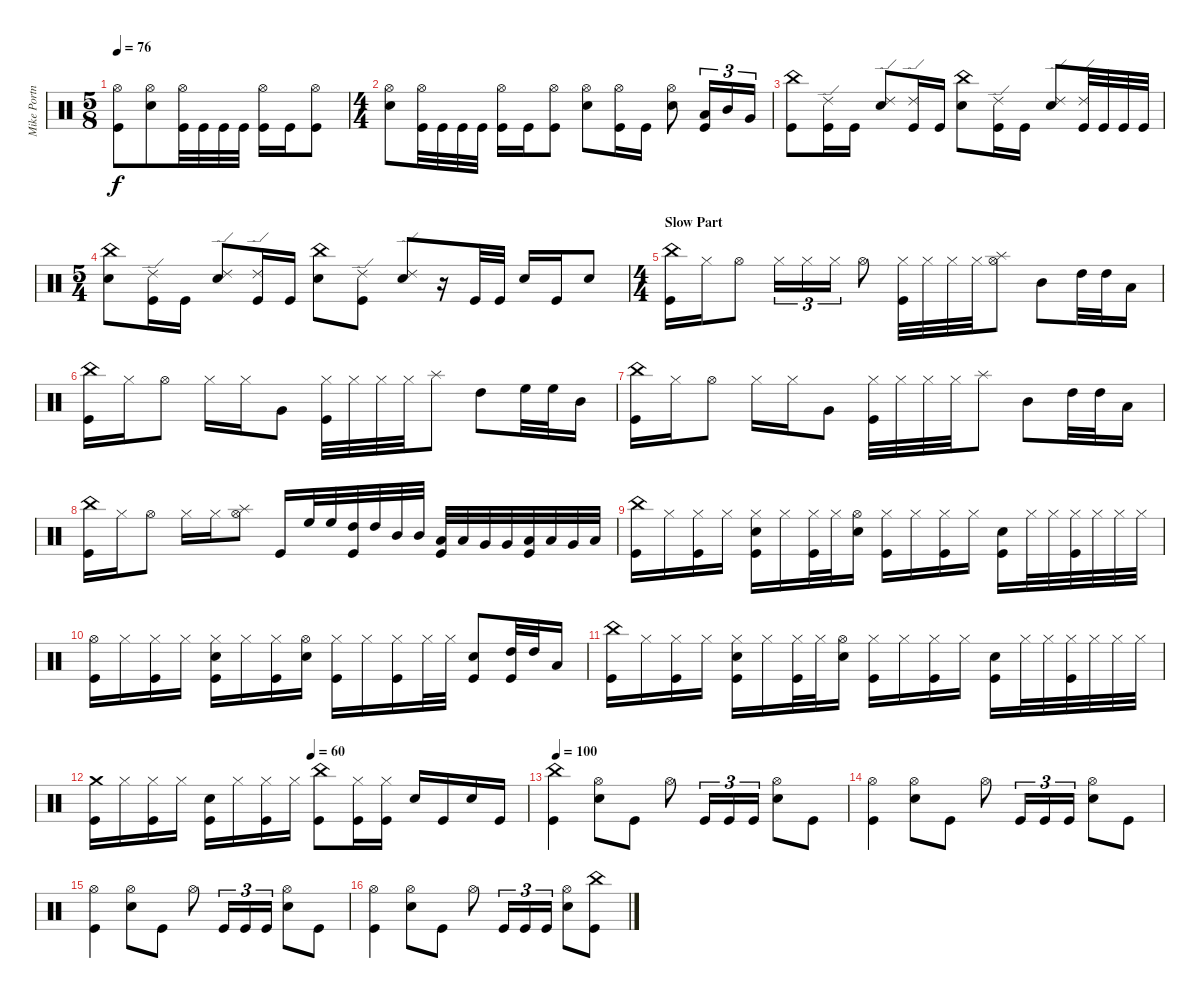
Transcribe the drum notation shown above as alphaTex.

\track ("Mike Portnoy (Drums)" "Mike Portn") {instrument percussion}
\staff {score}
\articulation defaults
\ts (5 8)
\tempo 76
\clef neutral
\ks c
("Kick (hit)" "Hi-Hat (open)").8{dy f} ("Snare (hit) 2" "Hi-Hat (open)").8 ("Kick (hit)" "Hi-Hat (open)").32 "Kick (hit)".32 "Kick (hit)".32 "Kick (hit)".32 ("Kick (hit)" "Hi-Hat (open)").16 "Kick (hit)".16 ("Kick (hit)" "Hi-Hat (open)").8 |
\ts (4 4)
("Snare (hit) 2" "Hi-Hat (open)").8 ("Kick (hit)" "Hi-Hat (open)").32 "Kick (hit)".32 "Kick (hit)".32 "Kick (hit)".32 ("Kick (hit)" "Hi-Hat (open)").16 "Kick (hit)".16 ("Kick (hit)" "Hi-Hat (open)").8 ("Snare (hit) 2" "Hi-Hat (open)").8 ("Kick (hit)" "Hi-Hat (open)").16 "Kick (hit)".16 ("Snare (hit) 2" "Hi-Hat (open)").8 ("Kick (hit)" "Low Tom (hit)").16{tu (3 2)} "Mid Tom (hit)".16{tu (3 2)} "Very Low Tom (hit)".16{tu (3 2)} |
("Kick (hit)" "China (hit)").8 ("Kick (hit)" "Ride (edge) 2").16 "Kick (hit)".16 ("Snare (hit) 2" "Ride (edge) 2").8 ("Kick (hit)" "Ride (edge) 2").16 "Kick (hit)".16 ("Snare (hit) 2" "China (hit)").8 ("Kick (hit)" "Ride (edge) 2").16 "Kick (hit)".16 ("Snare (hit) 2" "Ride (edge) 2").8 ("Kick (hit)" "Ride (edge) 2").32 "Kick (hit)".32 "Kick (hit)".32 "Kick (hit)".32 |
\ts (5 4)
("Snare (hit) 2" "China (hit)").8 ("Kick (hit)" "Ride (edge) 2").16 "Kick (hit)".16 ("Snare (hit) 2" "Ride (edge) 2").8 ("Kick (hit)" "Ride (edge) 2").16 "Kick (hit)".16 ("Snare (hit) 2" "China (hit)").8 ("Kick (hit)" "Ride (edge) 2").8 ("Snare (hit) 2" "Ride (edge) 2").8 r.16 "Kick (hit)".32 "Kick (hit)".32 "Snare (hit) 2".16 "Kick (hit)".16 "Snare (hit) 2".8 |
\ts (4 4)
\section ("" "Slow Part")
("Kick (hit)" "China (hit)").16 "Hi-Hat (closed)".16 "Hi-Hat (open)".8 "Hi-Hat (closed)".16{tu (3 2)} "Hi-Hat (closed)".16{tu (3 2)} "Hi-Hat (closed)".16{tu (3 2)} "Hi-Hat (open)".8 ("Kick (hit)" "Hi-Hat (closed)").32 "Hi-Hat (closed)".32 "Hi-Hat (closed)".32 "Hi-Hat (closed)".32 ("Hi-Hat (open)" "Splash (hit)").8 "Mid Tom (hit)".8 "High Tom (hit)".32 "High Tom (hit)".32 "Low Tom (hit)".16 |
("Kick (hit)" "China (hit)").16 "Hi-Hat (closed)".16 "Hi-Hat (open)".8 "Hi-Hat (closed)".16 "Hi-Hat (closed)".16 "Very Low Tom (hit)".8 ("Kick (hit)" "Hi-Hat (closed)").32 "Hi-Hat (closed)".32 "Hi-Hat (closed)".32 "Hi-Hat (closed)".32 "Splash (hit)".8 "High Tom (hit)".8 "High Floor Tom (hit)".32 "High Floor Tom (hit)".32 "Mid Tom (hit)".16 |
("Kick (hit)" "China (hit)").16 "Hi-Hat (closed)".16 "Hi-Hat (open)".8 "Hi-Hat (closed)".16 "Hi-Hat (closed)".16 "Very Low Tom (hit)".8 ("Kick (hit)" "Hi-Hat (closed)").32 "Hi-Hat (closed)".32 "Hi-Hat (closed)".32 "Hi-Hat (closed)".32 "Splash (hit)".8 "Mid Tom (hit)".8 "High Tom (hit)".32 "High Tom (hit)".32 "Low Tom (hit)".16 |
("Kick (hit)" "China (hit)").16 "Hi-Hat (closed)".16 "Hi-Hat (open)".8 "Hi-Hat (closed)".16 "Hi-Hat (closed)".16 ("Hi-Hat (open)" "Splash (hit)").8 "Kick (hit)".16 "High Floor Tom (hit)".32 "High Floor Tom (hit)".32 ("High Tom (hit)" "Kick (hit)").32 "High Tom (hit)".32 "Mid Tom (hit)".32 "Mid Tom (hit)".32 ("Low Tom (hit)" "Kick (hit)").32 "Low Tom (hit)".32 "Very Low Tom (hit)".32 "Very Low Tom (hit)".32 ("Low Floor Tom (hit)" "Kick (hit)").32 "Low Floor Tom (hit)".32 "Very Low Tom (hit)".32 "Low Floor Tom (hit)".32 |
("Kick (hit)" "China (hit)").16 "Hi-Hat (closed)".16 ("Kick (hit)" "Hi-Hat (closed)").16 "Hi-Hat (closed)".16 ("Kick (hit)" "Snare (hit) 2" "Hi-Hat (closed)").16 "Hi-Hat (closed)".16 ("Kick (hit)" "Hi-Hat (closed)").32 "Hi-Hat (closed)".32 ("Snare (hit) 2" "Hi-Hat (open)").16 ("Kick (hit)" "Hi-Hat (closed)").16 "Hi-Hat (closed)".16 ("Kick (hit)" "Hi-Hat (closed)").16 "Hi-Hat (closed)".16 ("Kick (hit)" "Snare (hit) 2").16 "Hi-Hat (closed)".32 "Hi-Hat (closed)".32 ("Kick (hit)" "Hi-Hat (closed)").32 "Hi-Hat (closed)".32 "Hi-Hat (closed)".32 "Hi-Hat (closed)".32 |
("Kick (hit)" "Hi-Hat (open)").16 "Hi-Hat (closed)".16 ("Kick (hit)" "Hi-Hat (closed)").16 "Hi-Hat (closed)".16 ("Kick (hit)" "Snare (hit) 2" "Hi-Hat (closed)").16 "Hi-Hat (closed)".16 ("Kick (hit)" "Hi-Hat (closed)").16 ("Snare (hit) 2" "Hi-Hat (open)").16 ("Kick (hit)" "Hi-Hat (closed)").16 "Hi-Hat (closed)".16 ("Kick (hit)" "Hi-Hat (closed)").16 "Hi-Hat (closed)".32 "Hi-Hat (closed)".32 ("Kick (hit)" "Snare (hit) 2").8 ("Kick (hit)" "High Tom (hit)").32 "High Tom (hit)".32 "Low Tom (hit)".16 |
("Kick (hit)" "China (hit)").16 "Hi-Hat (closed)".16 ("Kick (hit)" "Hi-Hat (closed)").16 "Hi-Hat (closed)".16 ("Kick (hit)" "Snare (hit) 2" "Hi-Hat (closed)").16 "Hi-Hat (closed)".16 ("Kick (hit)" "Hi-Hat (closed)").32 "Hi-Hat (closed)".32 ("Snare (hit) 2" "Hi-Hat (open)").16 ("Kick (hit)" "Hi-Hat (closed)").16 "Hi-Hat (closed)".16 ("Kick (hit)" "Hi-Hat (closed)").16 "Hi-Hat (closed)".16 ("Kick (hit)" "Snare (hit) 2").16 "Hi-Hat (closed)".32 "Hi-Hat (closed)".32 ("Kick (hit)" "Hi-Hat (closed)").32 "Hi-Hat (closed)".32 "Hi-Hat (closed)".32 "Hi-Hat (closed)".32 |
\tempo (60 0.5)
("Kick (hit)" "Crash medium (hit)").16 "Hi-Hat (closed)".16 ("Kick (hit)" "Hi-Hat (closed)").16 "Hi-Hat (closed)".16 ("Kick (hit)" "Snare (hit) 2").16 "Hi-Hat (closed)".16 ("Kick (hit)" "Hi-Hat (closed)").16 "Hi-Hat (closed)".16 ("Kick (hit)" "China (hit)").8 ("Kick (hit)" "Hi-Hat (closed)").16 ("Kick (hit)" "Hi-Hat (closed)").16 "Snare (hit) 2".16 "Kick (hit)".16 "Snare (hit) 2".16 "Kick (hit)".16 |
\tempo 100
("Kick (hit)" "China (hit)").4 ("Snare (hit) 2" "Hi-Hat (open)").8 "Kick (hit)".8 "Hi-Hat (open)".8 "Kick (hit)".16{tu (3 2)} "Kick (hit)".16{tu (3 2)} "Kick (hit)".16{tu (3 2)} ("Snare (hit) 2" "Hi-Hat (open)").8 "Kick (hit)".8 |
("Kick (hit)" "Hi-Hat (open)").4 ("Snare (hit) 2" "Hi-Hat (open)").8 "Kick (hit)".8 "Hi-Hat (open)".8 "Kick (hit)".16{tu (3 2)} "Kick (hit)".16{tu (3 2)} "Kick (hit)".16{tu (3 2)} ("Snare (hit) 2" "Hi-Hat (open)").8 "Kick (hit)".8 |
("Kick (hit)" "Hi-Hat (open)").4 ("Snare (hit) 2" "Hi-Hat (open)").8 "Kick (hit)".8 "Hi-Hat (open)".8 "Kick (hit)".16{tu (3 2)} "Kick (hit)".16{tu (3 2)} "Kick (hit)".16{tu (3 2)} ("Snare (hit) 2" "Hi-Hat (open)").8 "Kick (hit)".8 |
("Kick (hit)" "Hi-Hat (open)").4 ("Snare (hit) 2" "Hi-Hat (open)").8 "Kick (hit)".8 "Hi-Hat (open)".8 "Kick (hit)".16{tu (3 2)} "Kick (hit)".16{tu (3 2)} "Kick (hit)".16{tu (3 2)} ("Snare (hit) 2" "Hi-Hat (open)").8 ("Kick (hit)" "China (hit)").8
